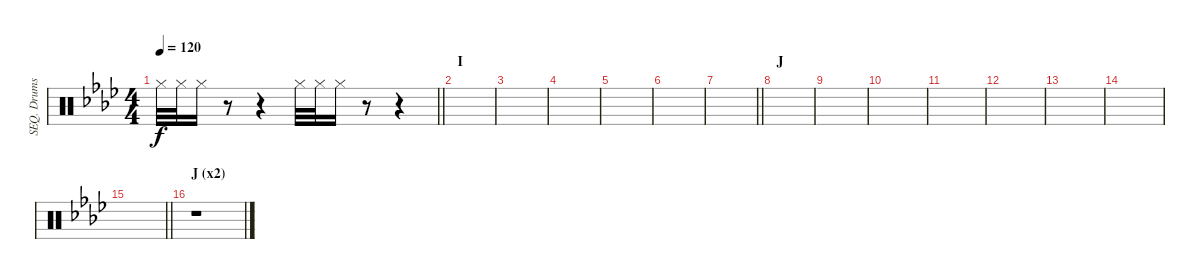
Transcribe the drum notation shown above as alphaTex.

\track ("SEQ. Drums" "SEQ. Drums") {instrument percussion}
\staff {score}
\articulation defaults
\ts (4 4)
\tempo 120
\clef neutral
\barLineRight lightlight
\ks ab "Hi-Hat (closed)".32{dy f} "Hi-Hat (closed)".32 "Hi-Hat (closed)".16
r.8 r.4 "Hi-Hat (closed)".32 "Hi-Hat (closed)".32 "Hi-Hat (closed)".16 r.8 r.4 |
\section ("" "I")
|
|
|
|
|
\barLineRight lightlight
|
\section ("" "J")
|
|
|
|
|
|
|
\barLineRight lightlight
|
\section ("" "J (x2)")
r.1
